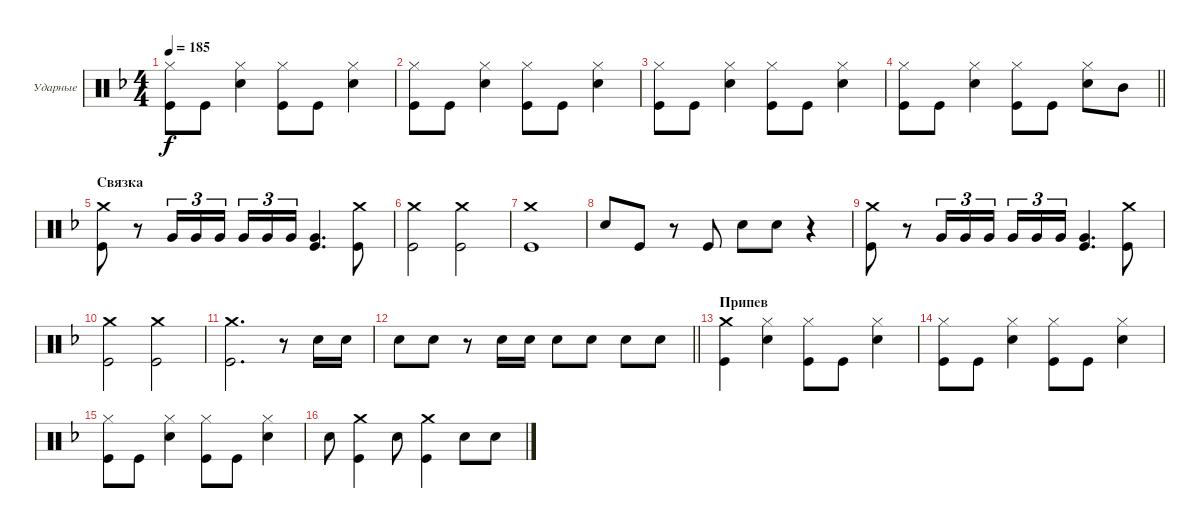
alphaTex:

\bracketExtendMode groupsimilarinstruments
\firstSystemTrackNameOrientation horizontal
\otherSystemsTrackNameOrientation horizontal
\track ("Александр Львов" "Ударные") {instrument percussion}
\staff {score}
\articulation defaults
\ts (4 4)
\tempo 185
\clef neutral
\ks dminor
("Kick (hit)" "Hi-Hat (closed)").8{dy f} "Kick (hit)".8 ("Snare (hit) 2" "Hi-Hat (closed)").4 ("Kick (hit)" "Hi-Hat (closed)").8 "Kick (hit)".8 ("Hi-Hat (closed)" "Snare (hit) 2").4 |
("Kick (hit)" "Hi-Hat (closed)").8 "Kick (hit)".8 ("Snare (hit) 2" "Hi-Hat (closed)").4 ("Kick (hit)" "Hi-Hat (closed)").8 "Kick (hit)".8 ("Hi-Hat (closed)" "Snare (hit) 2").4 |
("Kick (hit)" "Hi-Hat (closed)").8 "Kick (hit)".8 ("Snare (hit) 2" "Hi-Hat (closed)").4 ("Kick (hit)" "Hi-Hat (closed)").8 "Kick (hit)".8 ("Hi-Hat (closed)" "Snare (hit) 2").4 |
\barLineRight lightlight
("Kick (hit)" "Hi-Hat (closed)").8 "Kick (hit)".8 ("Snare (hit) 2" "Hi-Hat (closed)").4 ("Kick (hit)" "Hi-Hat (closed)").8 "Kick (hit)".8 ("Hi-Hat (closed)" "Snare (hit) 2").8 "Mid Tom (hit)".8 |
\section ("" "Связка")
("Kick (hit)" "Crash medium (hit)").8 r.8 "Very Low Tom (hit)".16{tu (3 2)} "Very Low Tom (hit)".16{tu (3 2)} "Very Low Tom (hit)".16{tu (3 2)} "Very Low Tom (hit)".16{tu (3 2)} "Very Low Tom (hit)".16{tu (3 2)} "Very Low Tom (hit)".16{tu (3 2)} ("Kick (hit)" "Very Low Tom (hit)").4{d} ("Kick (hit)" "Crash medium (hit)").8 |
("Kick (hit)" "Crash medium (hit)").2 ("Kick (hit)" "Crash medium (hit)").2 |
("Kick (hit)" "Crash medium (hit)").1 |
"Snare (hit) 2".8 "Kick (hit)".8 r.8 "Kick (hit)".8 "Snare (hit) 2".8 "Snare (hit) 2".8 r.4 |
("Kick (hit)" "Crash medium (hit)").8 r.8 "Very Low Tom (hit)".16{tu (3 2)} "Very Low Tom (hit)".16{tu (3 2)} "Very Low Tom (hit)".16{tu (3 2)} "Very Low Tom (hit)".16{tu (3 2)} "Very Low Tom (hit)".16{tu (3 2)} "Very Low Tom (hit)".16{tu (3 2)} ("Kick (hit)" "Very Low Tom (hit)").4{d} ("Kick (hit)" "Crash medium (hit)").8 |
("Kick (hit)" "Crash medium (hit)").2 ("Kick (hit)" "Crash medium (hit)").2 |
("Kick (hit)" "Crash medium (hit)").2{d} r.8 "Snare (hit) 2".16 "Snare (hit) 2".16 |
\barLineRight lightlight "Snare (hit) 2".8 "Snare (hit) 2".8
r.8 "Snare (hit) 2".16 "Snare (hit) 2".16 "Snare (hit) 2".8 "Snare (hit) 2".8 "Snare (hit) 2".8 "Snare (hit) 2".8 |
\section ("" "Припев")
("Kick (hit)" "Crash medium (hit)").4 ("Snare (hit) 2" "Hi-Hat (closed)").4 ("Kick (hit)" "Hi-Hat (closed)").8 "Kick (hit)".8 ("Hi-Hat (closed)" "Snare (hit) 2").4 |
("Kick (hit)" "Hi-Hat (closed)").8 "Kick (hit)".8 ("Snare (hit) 2" "Hi-Hat (closed)").4 ("Kick (hit)" "Hi-Hat (closed)").8 "Kick (hit)".8 ("Hi-Hat (closed)" "Snare (hit) 2").4 |
("Kick (hit)" "Hi-Hat (closed)").8 "Kick (hit)".8 ("Snare (hit) 2" "Hi-Hat (closed)").4 ("Kick (hit)" "Hi-Hat (closed)").8 "Kick (hit)".8 ("Hi-Hat (closed)" "Snare (hit) 2").4 |
"Snare (hit) 2".8 ("Kick (hit)" "Crash medium (hit)").4 "Snare (hit) 2".8 ("Kick (hit)" "Crash medium (hit)").4 "Snare (hit) 2".8 "Snare (hit) 2".8
